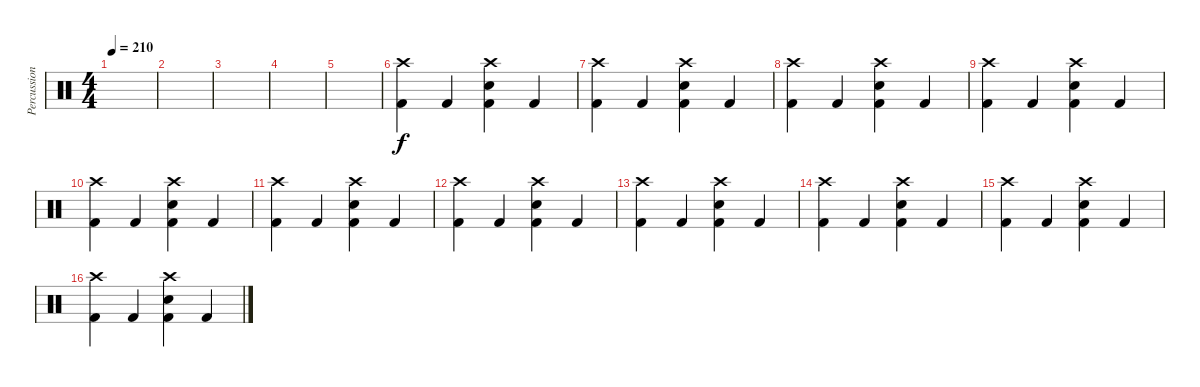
\track ("Percussion" "Percussion") {instrument percussion}
\staff {score}
\articulation defaults
\ts (4 4)
\tempo 210
\clef neutral
\ks c
|
|
|
|
|
("Crash high (hit)" "Kick (hit) 2").4 "Kick (hit) 2".4 ("Crash high (hit)" "Snare (hit) 2" "Kick (hit) 2").4 "Kick (hit) 2".4 |
("Crash high (hit)" "Kick (hit) 2").4 "Kick (hit) 2".4 ("Crash high (hit)" "Snare (hit) 2" "Kick (hit) 2").4 "Kick (hit) 2".4 |
("Crash high (hit)" "Kick (hit) 2").4 "Kick (hit) 2".4 ("Crash high (hit)" "Snare (hit) 2" "Kick (hit) 2").4 "Kick (hit) 2".4 |
("Crash high (hit)" "Kick (hit) 2").4 "Kick (hit) 2".4 ("Crash high (hit)" "Snare (hit) 2" "Kick (hit) 2").4 "Kick (hit) 2".4 |
("Crash high (hit)" "Kick (hit) 2").4 "Kick (hit) 2".4 ("Crash high (hit)" "Snare (hit) 2" "Kick (hit) 2").4 "Kick (hit) 2".4 |
("Crash high (hit)" "Kick (hit) 2").4 "Kick (hit) 2".4 ("Crash high (hit)" "Snare (hit) 2" "Kick (hit) 2").4 "Kick (hit) 2".4 |
("Crash high (hit)" "Kick (hit) 2").4 "Kick (hit) 2".4 ("Crash high (hit)" "Snare (hit) 2" "Kick (hit) 2").4 "Kick (hit) 2".4 |
("Crash high (hit)" "Kick (hit) 2").4 "Kick (hit) 2".4 ("Crash high (hit)" "Snare (hit) 2" "Kick (hit) 2").4 "Kick (hit) 2".4 |
("Crash high (hit)" "Kick (hit) 2").4 "Kick (hit) 2".4 ("Crash high (hit)" "Snare (hit) 2" "Kick (hit) 2").4 "Kick (hit) 2".4 |
("Crash high (hit)" "Kick (hit) 2").4 "Kick (hit) 2".4 ("Crash high (hit)" "Snare (hit) 2" "Kick (hit) 2").4 "Kick (hit) 2".4 |
("Crash high (hit)" "Kick (hit) 2").4 "Kick (hit) 2".4 ("Crash high (hit)" "Snare (hit) 2" "Kick (hit) 2").4 "Kick (hit) 2".4
